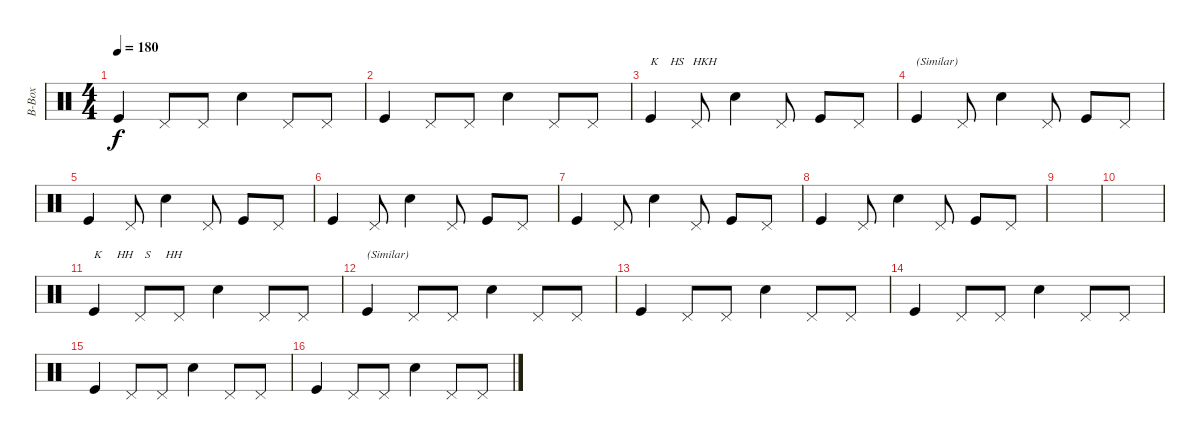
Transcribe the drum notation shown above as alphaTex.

\track ("B-Box" "B-Box") {instrument percussion}
\staff {score}
\articulation defaults
\ts (4 4)
\tempo 180
\clef neutral
\ks c "Kick (hit)".4{dy f} "Pedal Hi-Hat (hit)".8 "Pedal Hi-Hat (hit)".8 "Snare (hit) 2".4 "Pedal Hi-Hat (hit)".8 "Pedal Hi-Hat (hit)".8
|
"Kick (hit)".4 "Pedal Hi-Hat (hit)".8 "Pedal Hi-Hat (hit)".8 "Snare (hit) 2".4 "Pedal Hi-Hat (hit)".8 "Pedal Hi-Hat (hit)".8 |
"Kick (hit)".4{txt "K    HS   HKH"} "Pedal Hi-Hat (hit)".8 "Snare (hit) 2".4 "Pedal Hi-Hat (hit)".8 "Kick (hit)".8 "Pedal Hi-Hat (hit)".8 |
"Kick (hit)".4{txt "(Similar)"} "Pedal Hi-Hat (hit)".8 "Snare (hit) 2".4 "Pedal Hi-Hat (hit)".8 "Kick (hit)".8 "Pedal Hi-Hat (hit)".8 |
"Kick (hit)".4 "Pedal Hi-Hat (hit)".8 "Snare (hit) 2".4 "Pedal Hi-Hat (hit)".8 "Kick (hit)".8 "Pedal Hi-Hat (hit)".8 |
"Kick (hit)".4 "Pedal Hi-Hat (hit)".8 "Snare (hit) 2".4 "Pedal Hi-Hat (hit)".8 "Kick (hit)".8 "Pedal Hi-Hat (hit)".8 |
"Kick (hit)".4 "Pedal Hi-Hat (hit)".8 "Snare (hit) 2".4 "Pedal Hi-Hat (hit)".8 "Kick (hit)".8 "Pedal Hi-Hat (hit)".8 |
"Kick (hit)".4 "Pedal Hi-Hat (hit)".8 "Snare (hit) 2".4 "Pedal Hi-Hat (hit)".8 "Kick (hit)".8 "Pedal Hi-Hat (hit)".8 |
|
|
"Kick (hit)".4{txt "K     HH    S     HH"} "Pedal Hi-Hat (hit)".8 "Pedal Hi-Hat (hit)".8 "Snare (hit) 2".4 "Pedal Hi-Hat (hit)".8 "Pedal Hi-Hat (hit)".8 |
"Kick (hit)".4{txt "(Similar)"} "Pedal Hi-Hat (hit)".8 "Pedal Hi-Hat (hit)".8 "Snare (hit) 2".4 "Pedal Hi-Hat (hit)".8 "Pedal Hi-Hat (hit)".8 |
"Kick (hit)".4 "Pedal Hi-Hat (hit)".8 "Pedal Hi-Hat (hit)".8 "Snare (hit) 2".4 "Pedal Hi-Hat (hit)".8 "Pedal Hi-Hat (hit)".8 |
"Kick (hit)".4 "Pedal Hi-Hat (hit)".8 "Pedal Hi-Hat (hit)".8 "Snare (hit) 2".4 "Pedal Hi-Hat (hit)".8 "Pedal Hi-Hat (hit)".8 |
"Kick (hit)".4 "Pedal Hi-Hat (hit)".8 "Pedal Hi-Hat (hit)".8 "Snare (hit) 2".4 "Pedal Hi-Hat (hit)".8 "Pedal Hi-Hat (hit)".8 |
"Kick (hit)".4 "Pedal Hi-Hat (hit)".8 "Pedal Hi-Hat (hit)".8 "Snare (hit) 2".4 "Pedal Hi-Hat (hit)".8 "Pedal Hi-Hat (hit)".8
